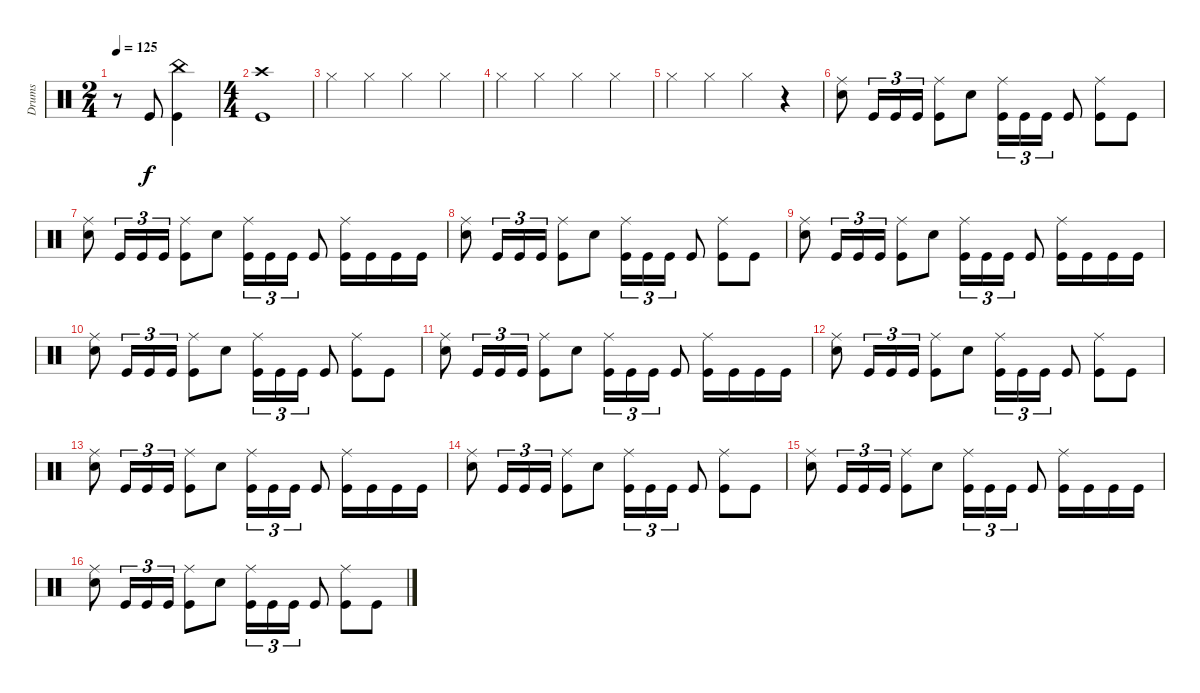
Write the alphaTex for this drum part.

\track ("Drums" "Drums") {instrument percussion}
\staff {score}
\articulation defaults
\ts (2 4)
\tempo 125
\clef neutral
\ks c
r.8{dy f} "Kick (hit)".8 ("China (hit)" "Kick (hit)").4 |
\ts (4 4)
("Crash high (hit)" "Kick (hit)").1 |
"Hi-Hat (closed)".4 "Hi-Hat (closed)".4 "Hi-Hat (closed)".4 "Hi-Hat (closed)".4 |
"Hi-Hat (closed)".4 "Hi-Hat (closed)".4 "Hi-Hat (closed)".4 "Hi-Hat (closed)".4 |
"Hi-Hat (closed)".4 "Hi-Hat (closed)".4 "Hi-Hat (closed)".4 r.4 |
("Ride (middle)" "Snare (hit) 2").8 "Kick (hit)".16{tu (3 2)} "Kick (hit)".16{tu (3 2)} "Kick (hit)".16{tu (3 2)} ("Ride (middle)" "Kick (hit)").8 "Snare (hit) 2".8 ("Ride (middle)" "Kick (hit)").16{tu (3 2)} "Kick (hit)".16{tu (3 2)} "Kick (hit)".16{tu (3 2)} "Kick (hit)".8 ("Ride (middle)" "Kick (hit)").8 "Kick (hit)".8 |
("Ride (middle)" "Snare (hit) 2").8 "Kick (hit)".16{tu (3 2)} "Kick (hit)".16{tu (3 2)} "Kick (hit)".16{tu (3 2)} ("Ride (middle)" "Kick (hit)").8 "Snare (hit) 2".8 ("Ride (middle)" "Kick (hit)").16{tu (3 2)} "Kick (hit)".16{tu (3 2)} "Kick (hit)".16{tu (3 2)} "Kick (hit)".8 ("Ride (middle)" "Kick (hit)").16 "Kick (hit)".16 "Kick (hit)".16 "Kick (hit)".16 |
("Ride (middle)" "Snare (hit) 2").8 "Kick (hit)".16{tu (3 2)} "Kick (hit)".16{tu (3 2)} "Kick (hit)".16{tu (3 2)} ("Ride (middle)" "Kick (hit)").8 "Snare (hit) 2".8 ("Ride (middle)" "Kick (hit)").16{tu (3 2)} "Kick (hit)".16{tu (3 2)} "Kick (hit)".16{tu (3 2)} "Kick (hit)".8 ("Ride (middle)" "Kick (hit)").8 "Kick (hit)".8 |
("Ride (middle)" "Snare (hit) 2").8 "Kick (hit)".16{tu (3 2)} "Kick (hit)".16{tu (3 2)} "Kick (hit)".16{tu (3 2)} ("Ride (middle)" "Kick (hit)").8 "Snare (hit) 2".8 ("Ride (middle)" "Kick (hit)").16{tu (3 2)} "Kick (hit)".16{tu (3 2)} "Kick (hit)".16{tu (3 2)} "Kick (hit)".8 ("Ride (middle)" "Kick (hit)").16 "Kick (hit)".16 "Kick (hit)".16 "Kick (hit)".16 |
("Ride (middle)" "Snare (hit) 2").8 "Kick (hit)".16{tu (3 2)} "Kick (hit)".16{tu (3 2)} "Kick (hit)".16{tu (3 2)} ("Ride (middle)" "Kick (hit)").8 "Snare (hit) 2".8 ("Ride (middle)" "Kick (hit)").16{tu (3 2)} "Kick (hit)".16{tu (3 2)} "Kick (hit)".16{tu (3 2)} "Kick (hit)".8 ("Ride (middle)" "Kick (hit)").8 "Kick (hit)".8 |
("Ride (middle)" "Snare (hit) 2").8 "Kick (hit)".16{tu (3 2)} "Kick (hit)".16{tu (3 2)} "Kick (hit)".16{tu (3 2)} ("Ride (middle)" "Kick (hit)").8 "Snare (hit) 2".8 ("Ride (middle)" "Kick (hit)").16{tu (3 2)} "Kick (hit)".16{tu (3 2)} "Kick (hit)".16{tu (3 2)} "Kick (hit)".8 ("Ride (middle)" "Kick (hit)").16 "Kick (hit)".16 "Kick (hit)".16 "Kick (hit)".16 |
("Ride (middle)" "Snare (hit) 2").8 "Kick (hit)".16{tu (3 2)} "Kick (hit)".16{tu (3 2)} "Kick (hit)".16{tu (3 2)} ("Ride (middle)" "Kick (hit)").8 "Snare (hit) 2".8 ("Ride (middle)" "Kick (hit)").16{tu (3 2)} "Kick (hit)".16{tu (3 2)} "Kick (hit)".16{tu (3 2)} "Kick (hit)".8 ("Ride (middle)" "Kick (hit)").8 "Kick (hit)".8 |
("Ride (middle)" "Snare (hit) 2").8 "Kick (hit)".16{tu (3 2)} "Kick (hit)".16{tu (3 2)} "Kick (hit)".16{tu (3 2)} ("Ride (middle)" "Kick (hit)").8 "Snare (hit) 2".8 ("Ride (middle)" "Kick (hit)").16{tu (3 2)} "Kick (hit)".16{tu (3 2)} "Kick (hit)".16{tu (3 2)} "Kick (hit)".8 ("Ride (middle)" "Kick (hit)").16 "Kick (hit)".16 "Kick (hit)".16 "Kick (hit)".16 |
("Ride (middle)" "Snare (hit) 2").8 "Kick (hit)".16{tu (3 2)} "Kick (hit)".16{tu (3 2)} "Kick (hit)".16{tu (3 2)} ("Ride (middle)" "Kick (hit)").8 "Snare (hit) 2".8 ("Ride (middle)" "Kick (hit)").16{tu (3 2)} "Kick (hit)".16{tu (3 2)} "Kick (hit)".16{tu (3 2)} "Kick (hit)".8 ("Ride (middle)" "Kick (hit)").8 "Kick (hit)".8 |
("Ride (middle)" "Snare (hit) 2").8 "Kick (hit)".16{tu (3 2)} "Kick (hit)".16{tu (3 2)} "Kick (hit)".16{tu (3 2)} ("Ride (middle)" "Kick (hit)").8 "Snare (hit) 2".8 ("Ride (middle)" "Kick (hit)").16{tu (3 2)} "Kick (hit)".16{tu (3 2)} "Kick (hit)".16{tu (3 2)} "Kick (hit)".8 ("Ride (middle)" "Kick (hit)").16 "Kick (hit)".16 "Kick (hit)".16 "Kick (hit)".16 |
("Ride (middle)" "Snare (hit) 2").8 "Kick (hit)".16{tu (3 2)} "Kick (hit)".16{tu (3 2)} "Kick (hit)".16{tu (3 2)} ("Ride (middle)" "Kick (hit)").8 "Snare (hit) 2".8 ("Ride (middle)" "Kick (hit)").16{tu (3 2)} "Kick (hit)".16{tu (3 2)} "Kick (hit)".16{tu (3 2)} "Kick (hit)".8 ("Ride (middle)" "Kick (hit)").8 "Kick (hit)".8
